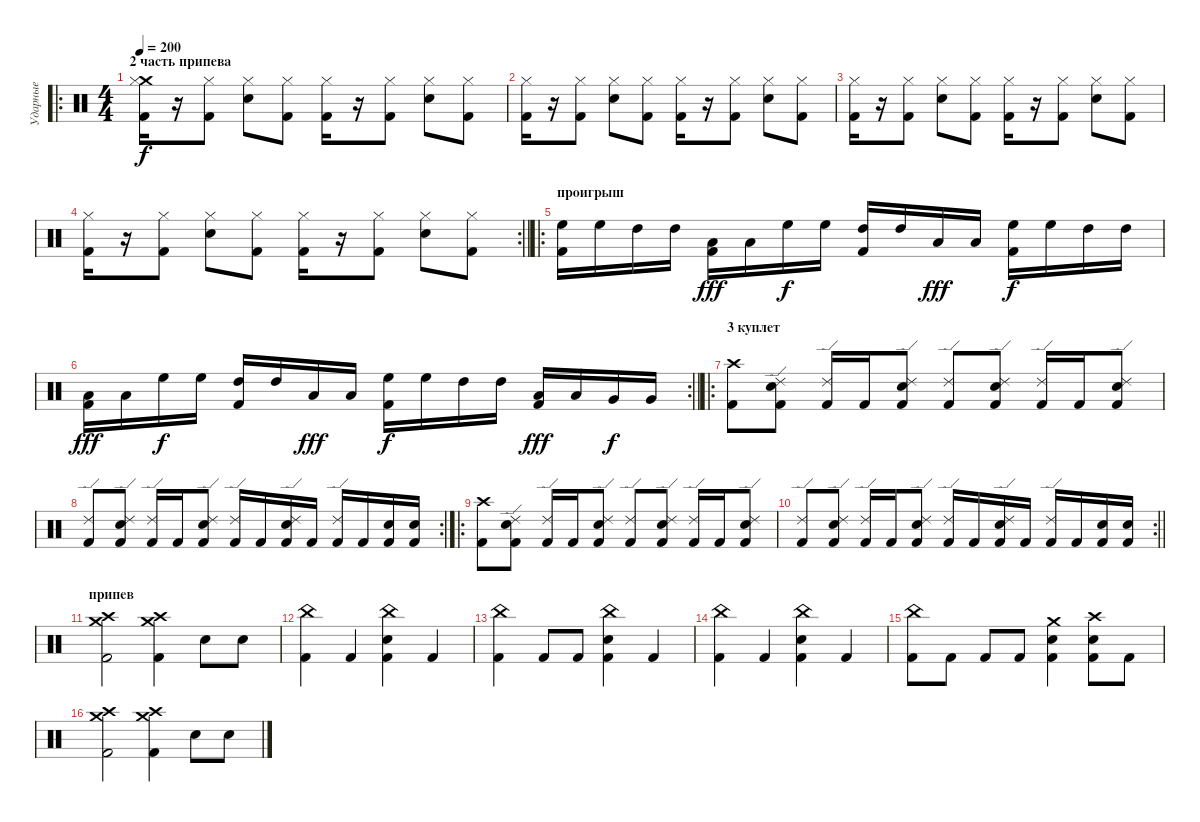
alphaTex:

\track ("Ударные" "Ударные") {instrument percussion}
\staff {score}
\articulation defaults
\ro
\ts (4 4)
\section ("" "2 часть припева")
\tempo 200
\clef neutral
\ks c
("Crash medium (hit)" "Hi-Hat (closed)" "Kick (hit) 2").16{dy f} r.16 ("Hi-Hat (closed)" "Kick (hit) 2").8 ("Snare (hit) 2" "Hi-Hat (closed)").8 ("Hi-Hat (closed)" "Kick (hit) 2").8 ("Hi-Hat (closed)" "Kick (hit) 2").16 r.16 ("Hi-Hat (closed)" "Kick (hit) 2").8 ("Snare (hit) 2" "Hi-Hat (closed)").8 ("Hi-Hat (closed)" "Kick (hit) 2").8 |
("Hi-Hat (closed)" "Kick (hit) 2").16 r.16 ("Hi-Hat (closed)" "Kick (hit) 2").8 ("Snare (hit) 2" "Hi-Hat (closed)").8 ("Hi-Hat (closed)" "Kick (hit) 2").8 ("Hi-Hat (closed)" "Kick (hit) 2").16 r.16 ("Hi-Hat (closed)" "Kick (hit) 2").8 ("Snare (hit) 2" "Hi-Hat (closed)").8 ("Hi-Hat (closed)" "Kick (hit) 2").8 |
("Hi-Hat (closed)" "Kick (hit) 2").16 r.16 ("Hi-Hat (closed)" "Kick (hit) 2").8 ("Snare (hit) 2" "Hi-Hat (closed)").8 ("Hi-Hat (closed)" "Kick (hit) 2").8 ("Hi-Hat (closed)" "Kick (hit) 2").16 r.16 ("Hi-Hat (closed)" "Kick (hit) 2").8 ("Snare (hit) 2" "Hi-Hat (closed)").8 ("Hi-Hat (closed)" "Kick (hit) 2").8 |
\rc 2
\barLineRight lightlight
("Hi-Hat (closed)" "Kick (hit) 2").16 r.16 ("Hi-Hat (closed)" "Kick (hit) 2").8 ("Snare (hit) 2" "Hi-Hat (closed)").8 ("Hi-Hat (closed)" "Kick (hit) 2").8 ("Hi-Hat (closed)" "Kick (hit) 2").16 r.16 ("Hi-Hat (closed)" "Kick (hit) 2").8 ("Snare (hit) 2" "Hi-Hat (closed)").8 ("Hi-Hat (closed)" "Kick (hit) 2").8 |
\ro
\section ("" "проигрыш")
("High Floor Tom (hit)" "Kick (hit) 2").16 "High Floor Tom (hit)".16 "High Tom (hit)".16 "High Tom (hit)".16 ("Low Tom (hit)" "Kick (hit) 2").16{dy fff} "Low Tom (hit)".16 "High Floor Tom (hit)".16{dy f} "High Floor Tom (hit)".16 ("High Tom (hit)" "Kick (hit) 2").16 "High Tom (hit)".16 "Low Tom (hit)".16{dy fff} "Low Tom (hit)".16 ("High Floor Tom (hit)" "Kick (hit) 2").16{dy f} "High Floor Tom (hit)".16 "High Tom (hit)".16 "High Tom (hit)".16 |
\rc 2
\barLineRight lightlight
("Low Tom (hit)" "Kick (hit) 2").16{dy fff} "Low Tom (hit)".16 "High Floor Tom (hit)".16{dy f} "High Floor Tom (hit)".16 ("High Tom (hit)" "Kick (hit) 2").16 "High Tom (hit)".16 "Low Tom (hit)".16{dy fff} "Low Tom (hit)".16 ("High Floor Tom (hit)" "Kick (hit) 2").16{dy f} "High Floor Tom (hit)".16 "High Tom (hit)".16 "High Tom (hit)".16 ("Low Tom (hit)" "Kick (hit) 2").16{dy fff} "Low Tom (hit)".16 "Very Low Tom (hit)".16{dy f} "Very Low Tom (hit)".16 |
\ro
\section ("" "3 куплет")
("Crash high (hit)" "Kick (hit) 2").8 ("Snare (hit) 2" "Ride (edge) 2" "Kick (hit) 2").8 ("Ride (edge) 2" "Kick (hit) 2").16 "Kick (hit) 2".16 ("Snare (hit) 2" "Ride (edge) 2" "Kick (hit) 2").8 ("Ride (edge) 2" "Kick (hit) 2").8 ("Snare (hit) 2" "Ride (edge) 2" "Kick (hit) 2").8 ("Ride (edge) 2" "Kick (hit) 2").16 "Kick (hit) 2".16 ("Snare (hit) 2" "Ride (edge) 2" "Kick (hit) 2").8 |
\rc 2
("Ride (edge) 2" "Kick (hit) 2").8 ("Snare (hit) 2" "Ride (edge) 2" "Kick (hit) 2").8 ("Ride (edge) 2" "Kick (hit) 2").16 "Kick (hit) 2".16 ("Snare (hit) 2" "Ride (edge) 2" "Kick (hit) 2").8 ("Ride (edge) 2" "Kick (hit) 2").16 "Kick (hit) 2".16 ("Snare (hit) 2" "Ride (edge) 2" "Kick (hit) 2").16 "Kick (hit) 2".16 ("Ride (edge) 2" "Kick (hit) 2").16 "Kick (hit) 2".16 ("Snare (hit) 2" "Kick (hit) 2").16 ("Snare (hit) 2" "Kick (hit) 2").16 |
\ro
("Crash high (hit)" "Kick (hit) 2").8 ("Snare (hit) 2" "Ride (edge) 2" "Kick (hit) 2").8 ("Ride (edge) 2" "Kick (hit) 2").16 "Kick (hit) 2".16 ("Snare (hit) 2" "Ride (edge) 2" "Kick (hit) 2").8 ("Ride (edge) 2" "Kick (hit) 2").8 ("Snare (hit) 2" "Ride (edge) 2" "Kick (hit) 2").8 ("Ride (edge) 2" "Kick (hit) 2").16 "Kick (hit) 2".16 ("Snare (hit) 2" "Ride (edge) 2" "Kick (hit) 2").8 |
\rc 2
\barLineRight lightlight
("Ride (edge) 2" "Kick (hit) 2").8 ("Snare (hit) 2" "Ride (edge) 2" "Kick (hit) 2").8 ("Ride (edge) 2" "Kick (hit) 2").16 "Kick (hit) 2".16 ("Snare (hit) 2" "Ride (edge) 2" "Kick (hit) 2").8 ("Ride (edge) 2" "Kick (hit) 2").16 "Kick (hit) 2".16 ("Snare (hit) 2" "Ride (edge) 2" "Kick (hit) 2").16 "Kick (hit) 2".16 ("Ride (edge) 2" "Kick (hit) 2").16 "Kick (hit) 2".16 ("Snare (hit) 2" "Kick (hit) 2").16 ("Snare (hit) 2" "Kick (hit) 2").16 |
\section ("" "припев")
("Crash medium (hit)" "Crash high (hit)" "Kick (hit) 2").2 ("Crash high (hit)" "Crash medium (hit)" "Kick (hit) 2").4 "Snare (hit) 2".8 "Snare (hit) 2".8 |
("China (hit)" "Kick (hit) 2").4 "Kick (hit) 2".4 ("Snare (hit) 2" "China (hit)" "Kick (hit) 2").4 "Kick (hit) 2".4 |
("China (hit)" "Kick (hit) 2").4 "Kick (hit) 2".8 "Kick (hit) 2".8 ("Snare (hit) 2" "China (hit)" "Kick (hit) 2").4 "Kick (hit) 2".4 |
("China (hit)" "Kick (hit) 2").4 "Kick (hit) 2".4 ("Snare (hit) 2" "China (hit)" "Kick (hit) 2").4 "Kick (hit) 2".4 |
("China (hit)" "Kick (hit) 2").8 "Kick (hit) 2".8 "Kick (hit) 2".8 "Kick (hit) 2".8 ("Snare (hit) 2" "Crash medium (hit)" "Kick (hit) 2").4 ("Snare (hit) 2" "Crash high (hit)" "Kick (hit) 2").8 "Kick (hit) 2".8 |
("Crash medium (hit)" "Crash high (hit)" "Kick (hit) 2").2 ("Crash high (hit)" "Crash medium (hit)" "Kick (hit) 2").4 "Snare (hit) 2".8 "Snare (hit) 2".8
